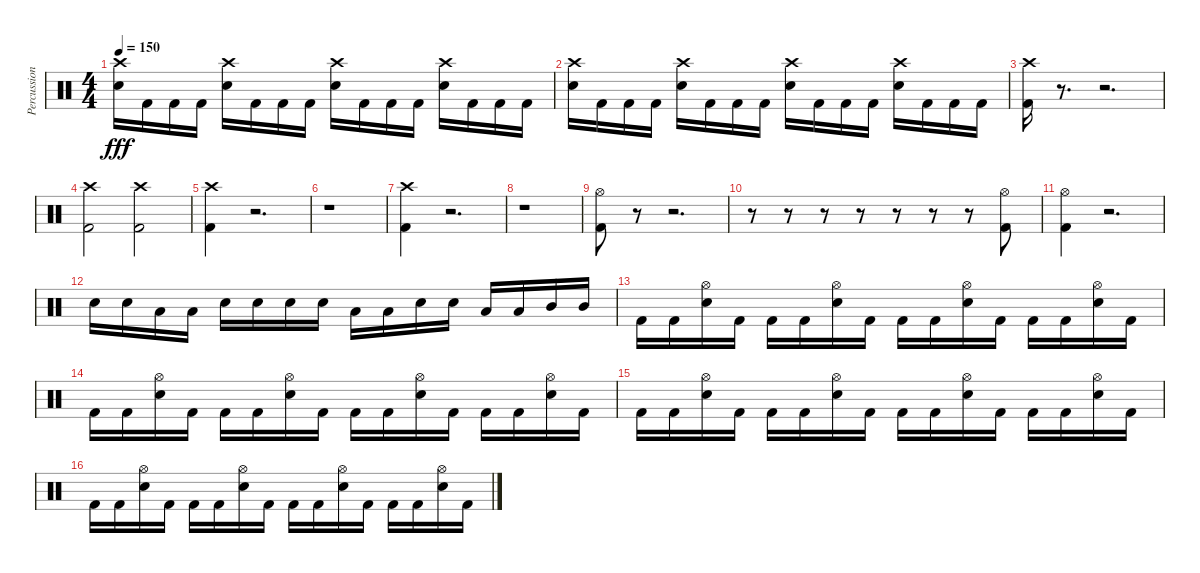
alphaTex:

\track ("Percussion" "Percussion") {instrument percussion}
\staff {score}
\articulation defaults
\ts (4 4)
\tempo 150
\clef neutral
\ks c
("Snare (hit) 2" "Crash high (hit)").16{dy fff} "Kick (hit) 2".16 "Kick (hit) 2".16 "Kick (hit) 2".16 ("Snare (hit) 2" "Crash high (hit)").16 "Kick (hit) 2".16 "Kick (hit) 2".16 "Kick (hit) 2".16 ("Snare (hit) 2" "Crash high (hit)").16 "Kick (hit) 2".16 "Kick (hit) 2".16 "Kick (hit) 2".16 ("Snare (hit) 2" "Crash high (hit)").16 "Kick (hit) 2".16 "Kick (hit) 2".16 "Kick (hit) 2".16 |
("Snare (hit) 2" "Crash high (hit)").16 "Kick (hit) 2".16 "Kick (hit) 2".16 "Kick (hit) 2".16 ("Snare (hit) 2" "Crash high (hit)").16 "Kick (hit) 2".16 "Kick (hit) 2".16 "Kick (hit) 2".16 ("Snare (hit) 2" "Crash high (hit)").16 "Kick (hit) 2".16 "Kick (hit) 2".16 "Kick (hit) 2".16 ("Snare (hit) 2" "Crash high (hit)").16 "Kick (hit) 2".16 "Kick (hit) 2".16 "Kick (hit) 2".16 |
("Kick (hit) 2" "Crash high (hit)").16 r.8{d} r.2{d} |
("Kick (hit) 2" "Crash high (hit)").2 ("Kick (hit) 2" "Crash high (hit)").2 |
("Kick (hit) 2" "Crash high (hit)").4 r.2{d} |
r.1 |
("Kick (hit) 2" "Crash high (hit)").4 r.2{d} |
r.1 |
("Kick (hit) 2" "Hi-Hat (open)").8 r.8 r.2{d} |
r.8 r.8 r.8 r.8 r.8 r.8 r.8 ("Kick (hit) 2" "Hi-Hat (open)").8 |
("Kick (hit) 2" "Hi-Hat (open)").4 r.2{d} |
"Snare (hit) 2".16 "Snare (hit) 2".16 "Low Tom (hit)".16 "Low Tom (hit)".16 "Snare (hit) 2".16 "Snare (hit) 2".16 "Snare (hit) 2".16 "Snare (hit) 2".16 "Low Tom (hit)".16 "Low Tom (hit)".16 "Snare (hit) 2".16 "Snare (hit) 2".16 "Low Tom (hit)".16 "Low Tom (hit)".16 "Mid Tom (hit)".16 "Mid Tom (hit)".16 |
"Kick (hit) 2".16 "Kick (hit) 2".16 ("Snare (hit) 2" "Hi-Hat (open)").16 "Kick (hit) 2".16 "Kick (hit) 2".16 "Kick (hit) 2".16 ("Snare (hit) 2" "Hi-Hat (open)").16 "Kick (hit) 2".16 "Kick (hit) 2".16 "Kick (hit) 2".16 ("Snare (hit) 2" "Hi-Hat (open)").16 "Kick (hit) 2".16 "Kick (hit) 2".16 "Kick (hit) 2".16 ("Snare (hit) 2" "Hi-Hat (open)").16 "Kick (hit) 2".16 |
"Kick (hit) 2".16 "Kick (hit) 2".16 ("Snare (hit) 2" "Hi-Hat (open)").16 "Kick (hit) 2".16 "Kick (hit) 2".16 "Kick (hit) 2".16 ("Snare (hit) 2" "Hi-Hat (open)").16 "Kick (hit) 2".16 "Kick (hit) 2".16 "Kick (hit) 2".16 ("Snare (hit) 2" "Hi-Hat (open)").16 "Kick (hit) 2".16 "Kick (hit) 2".16 "Kick (hit) 2".16 ("Snare (hit) 2" "Hi-Hat (open)").16 "Kick (hit) 2".16 |
"Kick (hit) 2".16 "Kick (hit) 2".16 ("Snare (hit) 2" "Hi-Hat (open)").16 "Kick (hit) 2".16 "Kick (hit) 2".16 "Kick (hit) 2".16 ("Snare (hit) 2" "Hi-Hat (open)").16 "Kick (hit) 2".16 "Kick (hit) 2".16 "Kick (hit) 2".16 ("Snare (hit) 2" "Hi-Hat (open)").16 "Kick (hit) 2".16 "Kick (hit) 2".16 "Kick (hit) 2".16 ("Snare (hit) 2" "Hi-Hat (open)").16 "Kick (hit) 2".16 |
"Kick (hit) 2".16 "Kick (hit) 2".16 ("Snare (hit) 2" "Hi-Hat (open)").16 "Kick (hit) 2".16 "Kick (hit) 2".16 "Kick (hit) 2".16 ("Snare (hit) 2" "Hi-Hat (open)").16 "Kick (hit) 2".16 "Kick (hit) 2".16 "Kick (hit) 2".16 ("Snare (hit) 2" "Hi-Hat (open)").16 "Kick (hit) 2".16 "Kick (hit) 2".16 "Kick (hit) 2".16 ("Snare (hit) 2" "Hi-Hat (open)").16 "Kick (hit) 2".16
